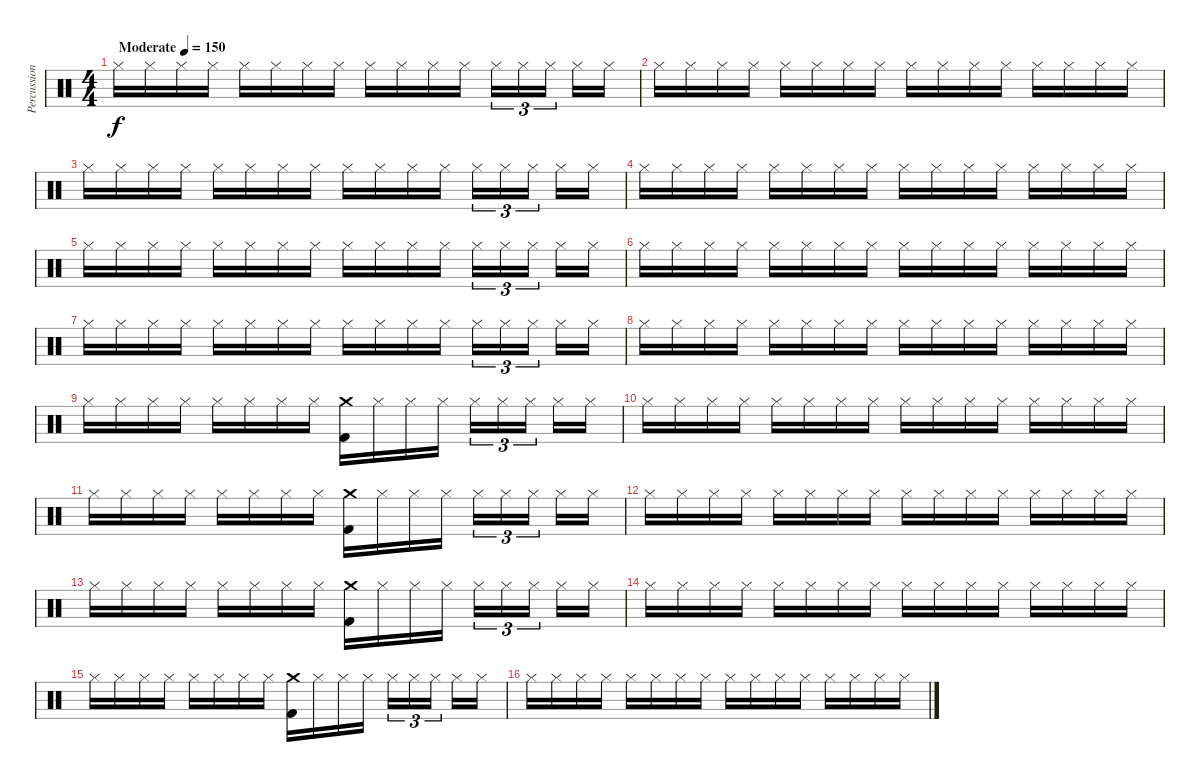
\track ("Percussioni" "Percussion") {instrument percussion}
\staff {score}
\articulation defaults
\ts (4 4)
\tempo (150 "Moderate")
\clef neutral
\ks c "Hi-Hat (closed)".16{dy f} "Hi-Hat (closed)".16 "Hi-Hat (closed)".16 "Hi-Hat (closed)".16 "Hi-Hat (closed)".16 "Hi-Hat (closed)".16 "Hi-Hat (closed)".16 "Hi-Hat (closed)".16 "Hi-Hat (closed)".16 "Hi-Hat (closed)".16 "Hi-Hat (closed)".16 "Hi-Hat (closed)".16 "Hi-Hat (closed)".16{tu (3 2)} "Hi-Hat (closed)".16{tu (3 2)} "Hi-Hat (closed)".16{tu (3 2) beam splitsecondary} "Hi-Hat (closed)".16 "Hi-Hat (closed)".16
|
"Hi-Hat (closed)".16 "Hi-Hat (closed)".16 "Hi-Hat (closed)".16 "Hi-Hat (closed)".16 "Hi-Hat (closed)".16 "Hi-Hat (closed)".16 "Hi-Hat (closed)".16 "Hi-Hat (closed)".16 "Hi-Hat (closed)".16 "Hi-Hat (closed)".16 "Hi-Hat (closed)".16 "Hi-Hat (closed)".16 "Hi-Hat (closed)".16 "Hi-Hat (closed)".16 "Hi-Hat (closed)".16 "Hi-Hat (closed)".16 |
"Hi-Hat (closed)".16 "Hi-Hat (closed)".16 "Hi-Hat (closed)".16 "Hi-Hat (closed)".16 "Hi-Hat (closed)".16 "Hi-Hat (closed)".16 "Hi-Hat (closed)".16 "Hi-Hat (closed)".16 "Hi-Hat (closed)".16 "Hi-Hat (closed)".16 "Hi-Hat (closed)".16 "Hi-Hat (closed)".16 "Hi-Hat (closed)".16{tu (3 2)} "Hi-Hat (closed)".16{tu (3 2)} "Hi-Hat (closed)".16{tu (3 2) beam splitsecondary} "Hi-Hat (closed)".16 "Hi-Hat (closed)".16 |
"Hi-Hat (closed)".16 "Hi-Hat (closed)".16 "Hi-Hat (closed)".16 "Hi-Hat (closed)".16 "Hi-Hat (closed)".16 "Hi-Hat (closed)".16 "Hi-Hat (closed)".16 "Hi-Hat (closed)".16 "Hi-Hat (closed)".16 "Hi-Hat (closed)".16 "Hi-Hat (closed)".16 "Hi-Hat (closed)".16 "Hi-Hat (closed)".16 "Hi-Hat (closed)".16 "Hi-Hat (closed)".16 "Hi-Hat (closed)".16 |
"Hi-Hat (closed)".16 "Hi-Hat (closed)".16 "Hi-Hat (closed)".16 "Hi-Hat (closed)".16 "Hi-Hat (closed)".16 "Hi-Hat (closed)".16 "Hi-Hat (closed)".16 "Hi-Hat (closed)".16 "Hi-Hat (closed)".16 "Hi-Hat (closed)".16 "Hi-Hat (closed)".16 "Hi-Hat (closed)".16 "Hi-Hat (closed)".16{tu (3 2)} "Hi-Hat (closed)".16{tu (3 2)} "Hi-Hat (closed)".16{tu (3 2) beam splitsecondary} "Hi-Hat (closed)".16 "Hi-Hat (closed)".16 |
"Hi-Hat (closed)".16 "Hi-Hat (closed)".16 "Hi-Hat (closed)".16 "Hi-Hat (closed)".16 "Hi-Hat (closed)".16 "Hi-Hat (closed)".16 "Hi-Hat (closed)".16 "Hi-Hat (closed)".16 "Hi-Hat (closed)".16 "Hi-Hat (closed)".16 "Hi-Hat (closed)".16 "Hi-Hat (closed)".16 "Hi-Hat (closed)".16 "Hi-Hat (closed)".16 "Hi-Hat (closed)".16 "Hi-Hat (closed)".16 |
"Hi-Hat (closed)".16 "Hi-Hat (closed)".16 "Hi-Hat (closed)".16 "Hi-Hat (closed)".16 "Hi-Hat (closed)".16 "Hi-Hat (closed)".16 "Hi-Hat (closed)".16 "Hi-Hat (closed)".16 "Hi-Hat (closed)".16 "Hi-Hat (closed)".16 "Hi-Hat (closed)".16 "Hi-Hat (closed)".16 "Hi-Hat (closed)".16{tu (3 2)} "Hi-Hat (closed)".16{tu (3 2)} "Hi-Hat (closed)".16{tu (3 2) beam splitsecondary} "Hi-Hat (closed)".16 "Hi-Hat (closed)".16 |
"Hi-Hat (closed)".16 "Hi-Hat (closed)".16 "Hi-Hat (closed)".16 "Hi-Hat (closed)".16 "Hi-Hat (closed)".16 "Hi-Hat (closed)".16 "Hi-Hat (closed)".16 "Hi-Hat (closed)".16 "Hi-Hat (closed)".16 "Hi-Hat (closed)".16 "Hi-Hat (closed)".16 "Hi-Hat (closed)".16 "Hi-Hat (closed)".16 "Hi-Hat (closed)".16 "Hi-Hat (closed)".16 "Hi-Hat (closed)".16 |
"Hi-Hat (closed)".16 "Hi-Hat (closed)".16 "Hi-Hat (closed)".16 "Hi-Hat (closed)".16 "Hi-Hat (closed)".16 "Hi-Hat (closed)".16 "Hi-Hat (closed)".16 "Hi-Hat (closed)".16 ("Crash medium (hit)" "Kick (hit) 2").16 "Hi-Hat (closed)".16 "Hi-Hat (closed)".16 "Hi-Hat (closed)".16 "Hi-Hat (closed)".16{tu (3 2)} "Hi-Hat (closed)".16{tu (3 2)} "Hi-Hat (closed)".16{tu (3 2) beam splitsecondary} "Hi-Hat (closed)".16 "Hi-Hat (closed)".16 |
"Hi-Hat (closed)".16 "Hi-Hat (closed)".16 "Hi-Hat (closed)".16 "Hi-Hat (closed)".16 "Hi-Hat (closed)".16 "Hi-Hat (closed)".16 "Hi-Hat (closed)".16 "Hi-Hat (closed)".16 "Hi-Hat (closed)".16 "Hi-Hat (closed)".16 "Hi-Hat (closed)".16 "Hi-Hat (closed)".16 "Hi-Hat (closed)".16 "Hi-Hat (closed)".16 "Hi-Hat (closed)".16 "Hi-Hat (closed)".16 |
"Hi-Hat (closed)".16 "Hi-Hat (closed)".16 "Hi-Hat (closed)".16 "Hi-Hat (closed)".16 "Hi-Hat (closed)".16 "Hi-Hat (closed)".16 "Hi-Hat (closed)".16 "Hi-Hat (closed)".16 ("Crash medium (hit)" "Kick (hit) 2").16 "Hi-Hat (closed)".16 "Hi-Hat (closed)".16 "Hi-Hat (closed)".16 "Hi-Hat (closed)".16{tu (3 2)} "Hi-Hat (closed)".16{tu (3 2)} "Hi-Hat (closed)".16{tu (3 2) beam splitsecondary} "Hi-Hat (closed)".16 "Hi-Hat (closed)".16 |
"Hi-Hat (closed)".16 "Hi-Hat (closed)".16 "Hi-Hat (closed)".16 "Hi-Hat (closed)".16 "Hi-Hat (closed)".16 "Hi-Hat (closed)".16 "Hi-Hat (closed)".16 "Hi-Hat (closed)".16 "Hi-Hat (closed)".16 "Hi-Hat (closed)".16 "Hi-Hat (closed)".16 "Hi-Hat (closed)".16 "Hi-Hat (closed)".16 "Hi-Hat (closed)".16 "Hi-Hat (closed)".16 "Hi-Hat (closed)".16 |
"Hi-Hat (closed)".16 "Hi-Hat (closed)".16 "Hi-Hat (closed)".16 "Hi-Hat (closed)".16 "Hi-Hat (closed)".16 "Hi-Hat (closed)".16 "Hi-Hat (closed)".16 "Hi-Hat (closed)".16 ("Crash medium (hit)" "Kick (hit) 2").16 "Hi-Hat (closed)".16 "Hi-Hat (closed)".16 "Hi-Hat (closed)".16 "Hi-Hat (closed)".16{tu (3 2)} "Hi-Hat (closed)".16{tu (3 2)} "Hi-Hat (closed)".16{tu (3 2) beam splitsecondary} "Hi-Hat (closed)".16 "Hi-Hat (closed)".16 |
"Hi-Hat (closed)".16 "Hi-Hat (closed)".16 "Hi-Hat (closed)".16 "Hi-Hat (closed)".16 "Hi-Hat (closed)".16 "Hi-Hat (closed)".16 "Hi-Hat (closed)".16 "Hi-Hat (closed)".16 "Hi-Hat (closed)".16 "Hi-Hat (closed)".16 "Hi-Hat (closed)".16 "Hi-Hat (closed)".16 "Hi-Hat (closed)".16 "Hi-Hat (closed)".16 "Hi-Hat (closed)".16 "Hi-Hat (closed)".16 |
"Hi-Hat (closed)".16 "Hi-Hat (closed)".16 "Hi-Hat (closed)".16 "Hi-Hat (closed)".16 "Hi-Hat (closed)".16 "Hi-Hat (closed)".16 "Hi-Hat (closed)".16 "Hi-Hat (closed)".16 ("Crash medium (hit)" "Kick (hit) 2").16 "Hi-Hat (closed)".16 "Hi-Hat (closed)".16 "Hi-Hat (closed)".16 "Hi-Hat (closed)".16{tu (3 2)} "Hi-Hat (closed)".16{tu (3 2)} "Hi-Hat (closed)".16{tu (3 2) beam splitsecondary} "Hi-Hat (closed)".16 "Hi-Hat (closed)".16 |
"Hi-Hat (closed)".16 "Hi-Hat (closed)".16 "Hi-Hat (closed)".16 "Hi-Hat (closed)".16 "Hi-Hat (closed)".16 "Hi-Hat (closed)".16 "Hi-Hat (closed)".16 "Hi-Hat (closed)".16 "Hi-Hat (closed)".16 "Hi-Hat (closed)".16 "Hi-Hat (closed)".16 "Hi-Hat (closed)".16 "Hi-Hat (closed)".16 "Hi-Hat (closed)".16 "Hi-Hat (closed)".16 "Hi-Hat (closed)".16
